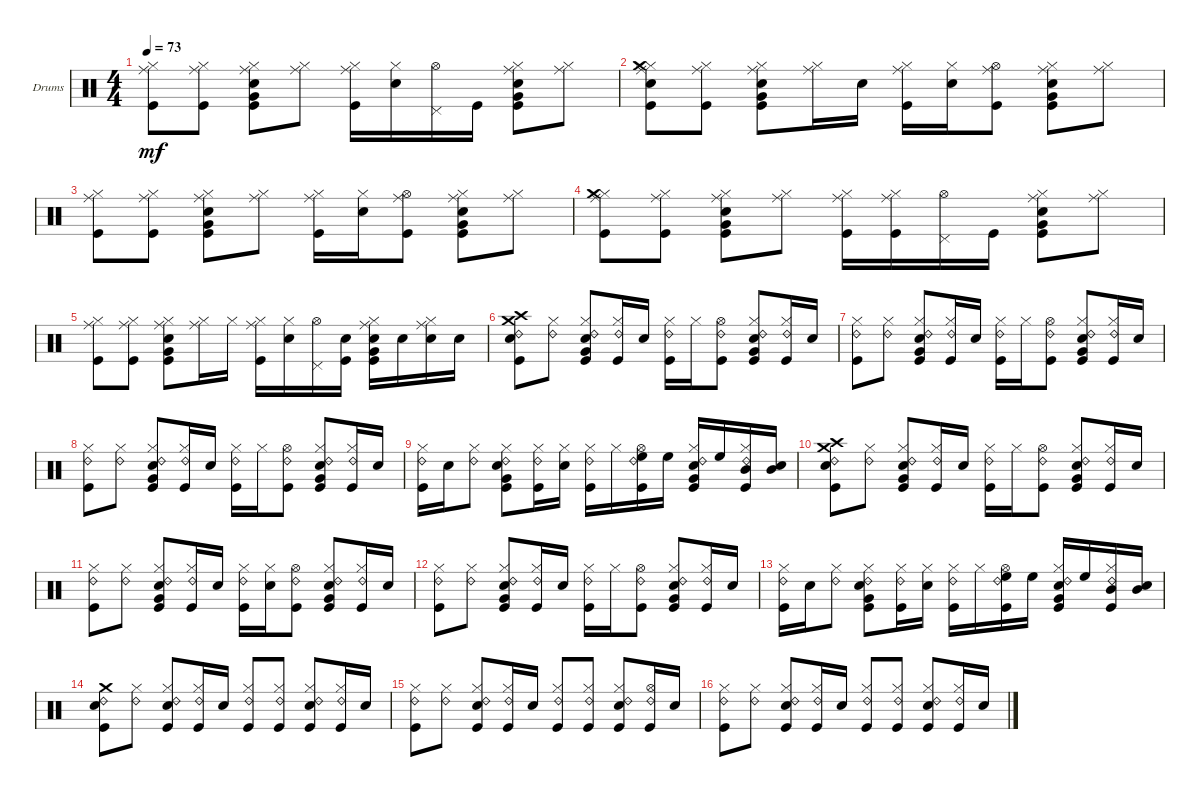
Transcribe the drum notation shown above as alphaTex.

\bracketExtendMode groupsimilarinstruments
\firstSystemTrackNameOrientation horizontal
\otherSystemsTrackNameOrientation horizontal
\track ("Drums" "Drums") {instrument percussion}
\staff {score}
\articulation defaults
\ts (4 4)
\tempo 73
\clef neutral
\ks c
("Kick (hit)" "Hi-Hat (closed)" "Ride (middle)").8{dy mf} ("Hi-Hat (closed)" "Kick (hit)" "Ride (middle)").8 ("Kick (hit)" "Snare (hit) 2" "Hi-Hat (closed)" "Very Low Tom (hit)" "Ride (middle)").8 ("Hi-Hat (closed)" "Ride (middle)").8 ("Kick (hit)" "Hi-Hat (closed)" "Ride (middle)").16 ("Hi-Hat (closed)" "Snare (hit) 2").16 ("Hi-Hat (open)" "Pedal Hi-Hat (hit)").16 "Kick (hit)".16 ("Kick (hit)" "Snare (hit) 2" "Hi-Hat (closed)" "Very Low Tom (hit)" "Ride (middle)").8 ("Hi-Hat (closed)" "Ride (middle)").8 |
("Kick (hit)" "Snare (hit) 2" "Hi-Hat (closed)" "Crash medium (hit)" "Ride (middle)").8 ("Hi-Hat (closed)" "Kick (hit)" "Ride (middle)").8 ("Kick (hit)" "Snare (hit) 2" "Hi-Hat (closed)" "Very Low Tom (hit)" "Ride (middle)").8 ("Hi-Hat (closed)" "Ride (middle)").16 "Snare (hit) 2".16 ("Kick (hit)" "Hi-Hat (closed)" "Ride (middle)").16 ("Hi-Hat (closed)" "Snare (hit) 2").16 ("Hi-Hat (open)" "Kick (hit)" "Ride (middle)").8 ("Kick (hit)" "Snare (hit) 2" "Hi-Hat (closed)" "Very Low Tom (hit)" "Ride (middle)").8 ("Hi-Hat (closed)" "Ride (middle)").8 |
("Kick (hit)" "Hi-Hat (closed)" "Ride (middle)").8 ("Hi-Hat (closed)" "Kick (hit)" "Ride (middle)").8 ("Kick (hit)" "Snare (hit) 2" "Hi-Hat (closed)" "Very Low Tom (hit)" "Ride (middle)").8 ("Hi-Hat (closed)" "Ride (middle)").8 ("Kick (hit)" "Hi-Hat (closed)" "Ride (middle)").16 ("Hi-Hat (closed)" "Snare (hit) 2").16 ("Hi-Hat (open)" "Kick (hit)" "Ride (middle)").8 ("Kick (hit)" "Snare (hit) 2" "Hi-Hat (closed)" "Very Low Tom (hit)" "Ride (middle)").8 ("Hi-Hat (closed)" "Ride (middle)").8 |
("Kick (hit)" "Hi-Hat (closed)" "Ride (middle)" "Crash medium (hit)").8 ("Hi-Hat (closed)" "Kick (hit)" "Ride (middle)").8 ("Kick (hit)" "Snare (hit) 2" "Hi-Hat (closed)" "Very Low Tom (hit)" "Ride (middle)").8 ("Hi-Hat (closed)" "Ride (middle)").8 ("Kick (hit)" "Hi-Hat (closed)" "Ride (middle)").16 ("Hi-Hat (closed)" "Kick (hit)" "Ride (middle)").16 ("Hi-Hat (open)" "Pedal Hi-Hat (hit)").16 "Kick (hit)".16 ("Kick (hit)" "Snare (hit) 2" "Hi-Hat (closed)" "Very Low Tom (hit)" "Ride (middle)").8 ("Hi-Hat (closed)" "Ride (middle)").8 |
("Kick (hit)" "Hi-Hat (closed)" "Ride (middle)").8 ("Hi-Hat (closed)" "Kick (hit)" "Ride (middle)").8 ("Kick (hit)" "Snare (hit) 2" "Hi-Hat (closed)" "Very Low Tom (hit)" "Ride (middle)").8 ("Hi-Hat (closed)" "Ride (middle)").16 "Hi-Hat (closed)".16 ("Kick (hit)" "Hi-Hat (closed)" "Ride (middle)").16 ("Hi-Hat (closed)" "Snare (hit) 2").16 ("Hi-Hat (open)" "Pedal Hi-Hat (hit)").16 ("Snare (hit) 2" "Kick (hit)").16 ("Kick (hit)" "Snare (hit) 2" "Hi-Hat (closed)" "Very Low Tom (hit)" "Ride (middle)").16 "Snare (hit) 2".16 ("Snare (hit) 2" "Hi-Hat (closed)" "Ride (middle)").16 "Snare (hit) 2".16 |
("Kick (hit)" "Snare (hit) 2" "Crash medium (hit)" "Crash high (hit)" "Ride (bell) 2").8 ("Hi-Hat (closed)" "Ride (bell) 2").8 ("Kick (hit)" "Snare (hit) 2" "Hi-Hat (closed)" "Very Low Tom (hit)" "Ride (bell) 2").8 ("Hi-Hat (closed)" "Kick (hit)" "Ride (bell) 2").16 "Snare (hit) 2".16 ("Kick (hit)" "Hi-Hat (closed)" "Ride (bell) 2").16 "Hi-Hat (closed)".16 ("Hi-Hat (open)" "Kick (hit)" "Ride (bell) 2").8 ("Kick (hit)" "Snare (hit) 2" "Hi-Hat (closed)" "Very Low Tom (hit)" "Ride (bell) 2").8 ("Hi-Hat (closed)" "Kick (hit)" "Ride (bell) 2").16 "Snare (hit) 2".16 |
("Kick (hit)" "Hi-Hat (closed)" "Ride (bell) 2").8 ("Hi-Hat (closed)" "Ride (bell) 2").8 ("Kick (hit)" "Snare (hit) 2" "Hi-Hat (closed)" "Very Low Tom (hit)" "Ride (bell) 2").8 ("Hi-Hat (closed)" "Kick (hit)" "Ride (bell) 2").16 "Snare (hit) 2".16 ("Kick (hit)" "Hi-Hat (closed)" "Ride (bell) 2").16 "Hi-Hat (closed)".16 ("Hi-Hat (open)" "Kick (hit)" "Ride (bell) 2").8 ("Kick (hit)" "Snare (hit) 2" "Hi-Hat (closed)" "Very Low Tom (hit)" "Ride (bell) 2").8 ("Hi-Hat (closed)" "Kick (hit)" "Ride (bell) 2").16 "Snare (hit) 2".16 |
("Kick (hit)" "Hi-Hat (closed)" "Ride (bell) 2").8 ("Hi-Hat (closed)" "Ride (bell) 2").8 ("Kick (hit)" "Snare (hit) 2" "Hi-Hat (closed)" "Very Low Tom (hit)" "Ride (bell) 2").8 ("Hi-Hat (closed)" "Kick (hit)" "Ride (bell) 2").16 "Snare (hit) 2".16 ("Kick (hit)" "Hi-Hat (closed)" "Ride (bell) 2").16 "Hi-Hat (closed)".16 ("Hi-Hat (open)" "Kick (hit)" "Ride (bell) 2").8 ("Kick (hit)" "Snare (hit) 2" "Hi-Hat (closed)" "Very Low Tom (hit)" "Ride (bell) 2").8 ("Hi-Hat (closed)" "Kick (hit)" "Ride (bell) 2").16 "Snare (hit) 2".16 |
("Kick (hit)" "Hi-Hat (closed)" "Ride (bell) 2").16 "Snare (hit) 2".16 ("Hi-Hat (closed)" "Ride (bell) 2").8 ("Kick (hit)" "Snare (hit) 2" "Hi-Hat (closed)" "Very Low Tom (hit)" "Ride (bell) 2").8 ("Hi-Hat (closed)" "Kick (hit)" "Ride (bell) 2").16 ("Hi-Hat (closed)" "Snare (hit) 2").16 ("Kick (hit)" "Hi-Hat (closed)" "Ride (bell) 2").16 "Hi-Hat (closed)".16 ("Hi-Hat (open)" "High Floor Tom (hit)" "Kick (hit)" "Ride (bell) 2").16 "High Floor Tom (hit)".16 ("Kick (hit)" "Hi-Hat (closed)" "Very Low Tom (hit)" "Snare (hit) 2" "Ride (bell) 2").16 "High Floor Tom (hit)".16 ("Hi-Hat (closed)" "Mid Tom (hit)" "Kick (hit)" "Ride (bell) 2").16 ("Mid Tom (hit)" "Snare (hit) 2").16 |
("Kick (hit)" "Snare (hit) 2" "Crash medium (hit)" "Crash high (hit)" "Ride (bell) 2").8 ("Hi-Hat (closed)" "Ride (bell) 2").8 ("Kick (hit)" "Snare (hit) 2" "Hi-Hat (closed)" "Very Low Tom (hit)" "Ride (bell) 2").8 ("Hi-Hat (closed)" "Kick (hit)" "Ride (bell) 2").16 "Snare (hit) 2".16 ("Kick (hit)" "Hi-Hat (closed)" "Ride (bell) 2").16 "Hi-Hat (closed)".16 ("Hi-Hat (open)" "Kick (hit)" "Ride (bell) 2").8 ("Kick (hit)" "Snare (hit) 2" "Hi-Hat (closed)" "Very Low Tom (hit)" "Ride (bell) 2").8 ("Hi-Hat (closed)" "Kick (hit)" "Ride (bell) 2").16 "Snare (hit) 2".16 |
("Kick (hit)" "Hi-Hat (closed)" "Ride (bell) 2").8 ("Hi-Hat (closed)" "Ride (bell) 2").8 ("Kick (hit)" "Snare (hit) 2" "Hi-Hat (closed)" "Very Low Tom (hit)" "Ride (bell) 2").8 ("Hi-Hat (closed)" "Kick (hit)" "Ride (bell) 2").16 "Snare (hit) 2".16 ("Kick (hit)" "Hi-Hat (closed)" "Ride (bell) 2").16 ("Snare (hit) 2" "Hi-Hat (closed)").16 ("Hi-Hat (open)" "Kick (hit)" "Ride (bell) 2").8 ("Kick (hit)" "Snare (hit) 2" "Hi-Hat (closed)" "Very Low Tom (hit)" "Ride (bell) 2").8 ("Hi-Hat (closed)" "Kick (hit)" "Ride (bell) 2").16 "Snare (hit) 2".16 |
("Kick (hit)" "Hi-Hat (closed)" "Ride (bell) 2").8 ("Hi-Hat (closed)" "Ride (bell) 2").8 ("Kick (hit)" "Snare (hit) 2" "Hi-Hat (closed)" "Very Low Tom (hit)" "Ride (bell) 2").8 ("Hi-Hat (closed)" "Kick (hit)" "Ride (bell) 2").16 "Snare (hit) 2".16 ("Kick (hit)" "Hi-Hat (closed)" "Ride (bell) 2").16 "Hi-Hat (closed)".16 ("Hi-Hat (open)" "Kick (hit)" "Ride (bell) 2").8 ("Kick (hit)" "Snare (hit) 2" "Hi-Hat (closed)" "Very Low Tom (hit)" "Ride (bell) 2").8 ("Hi-Hat (closed)" "Kick (hit)" "Ride (bell) 2").16 "Snare (hit) 2".16 |
("Kick (hit)" "Hi-Hat (closed)" "Ride (bell) 2").16 "Snare (hit) 2".16 ("Hi-Hat (closed)" "Ride (bell) 2").8 ("Kick (hit)" "Snare (hit) 2" "Hi-Hat (closed)" "Very Low Tom (hit)" "Ride (bell) 2").8 ("Hi-Hat (closed)" "Kick (hit)" "Ride (bell) 2").16 ("Hi-Hat (closed)" "Snare (hit) 2").16 ("Kick (hit)" "Hi-Hat (closed)" "Ride (bell) 2").16 "Hi-Hat (closed)".16 ("Hi-Hat (open)" "High Floor Tom (hit)" "Kick (hit)" "Ride (bell) 2").16 "High Floor Tom (hit)".16 ("Kick (hit)" "Hi-Hat (closed)" "Very Low Tom (hit)" "Snare (hit) 2" "Ride (bell) 2").16 "High Floor Tom (hit)".16 ("Hi-Hat (closed)" "Mid Tom (hit)" "Kick (hit)" "Ride (bell) 2").16 ("Mid Tom (hit)" "Snare (hit) 2").16 |
("Kick (hit)" "Snare (hit) 2" "Crash medium (hit)" "Ride (bell) 2").8 ("Hi-Hat (closed)" "Ride (bell) 2").8 ("Kick (hit)" "Snare (hit) 2" "Hi-Hat (closed)" "Ride (bell) 2").8 ("Hi-Hat (closed)" "Kick (hit)" "Ride (bell) 2").16 "Snare (hit) 2".16 ("Kick (hit)" "Hi-Hat (closed)" "Ride (bell) 2").8 ("Hi-Hat (closed)" "Kick (hit)" "Ride (bell) 2").8 ("Kick (hit)" "Snare (hit) 2" "Hi-Hat (closed)" "Ride (bell) 2").8 ("Hi-Hat (closed)" "Kick (hit)" "Ride (bell) 2").16 "Snare (hit) 2".16 |
("Kick (hit)" "Hi-Hat (closed)" "Ride (bell) 2").8 ("Hi-Hat (closed)" "Ride (bell) 2").8 ("Kick (hit)" "Snare (hit) 2" "Hi-Hat (closed)" "Ride (bell) 2").8 ("Hi-Hat (closed)" "Kick (hit)" "Ride (bell) 2").16 "Snare (hit) 2".16 ("Kick (hit)" "Hi-Hat (closed)" "Ride (bell) 2").8 ("Hi-Hat (closed)" "Kick (hit)" "Ride (bell) 2").8 ("Kick (hit)" "Snare (hit) 2" "Hi-Hat (closed)" "Ride (bell) 2").8 ("Hi-Hat (open)" "Kick (hit)" "Ride (bell) 2").16 "Snare (hit) 2".16 |
("Kick (hit)" "Hi-Hat (closed)" "Ride (bell) 2").8 ("Hi-Hat (closed)" "Ride (bell) 2").8 ("Kick (hit)" "Snare (hit) 2" "Hi-Hat (closed)" "Ride (bell) 2").8 ("Hi-Hat (closed)" "Kick (hit)" "Ride (bell) 2").16 "Snare (hit) 2".16 ("Kick (hit)" "Hi-Hat (closed)" "Ride (bell) 2").8 ("Hi-Hat (closed)" "Kick (hit)" "Ride (bell) 2").8 ("Kick (hit)" "Snare (hit) 2" "Hi-Hat (closed)" "Ride (bell) 2").8 ("Hi-Hat (closed)" "Kick (hit)" "Ride (bell) 2").16 "Snare (hit) 2".16
